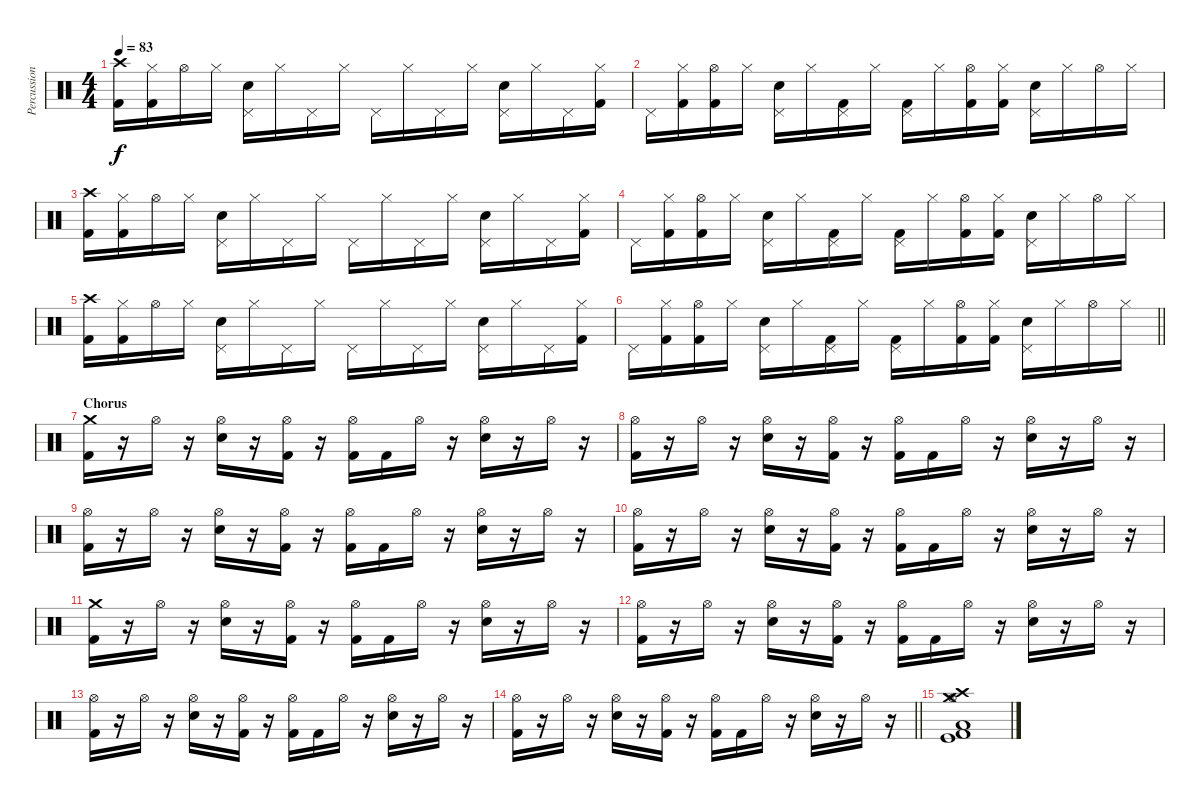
\track ("Percussion" "Percussion") {instrument percussion}
\staff {score}
\articulation defaults
\ts (4 4)
\tempo 83
\clef neutral
\ks c
("Crash high (hit)" "Kick (hit) 2").16{dy f} ("Hi-Hat (closed)" "Kick (hit) 2").16 "Hi-Hat (open)".16 "Hi-Hat (closed)".16 ("Pedal Hi-Hat (hit)" "Electric Snare (hit)").16 "Hi-Hat (closed)".16 "Pedal Hi-Hat (hit)".16 "Hi-Hat (closed)".16 "Pedal Hi-Hat (hit)".16 "Hi-Hat (closed)".16 "Pedal Hi-Hat (hit)".16 "Hi-Hat (closed)".16 ("Pedal Hi-Hat (hit)" "Electric Snare (hit)").16 "Hi-Hat (closed)".16 "Pedal Hi-Hat (hit)".16 ("Hi-Hat (closed)" "Kick (hit) 2").16 |
"Pedal Hi-Hat (hit)".16 ("Hi-Hat (closed)" "Kick (hit) 2").16 ("Hi-Hat (open)" "Kick (hit) 2").16 "Hi-Hat (closed)".16 ("Pedal Hi-Hat (hit)" "Electric Snare (hit)").16 "Hi-Hat (closed)".16 ("Pedal Hi-Hat (hit)" "Kick (hit) 2").16 "Hi-Hat (closed)".16 ("Pedal Hi-Hat (hit)" "Kick (hit) 2").16 "Hi-Hat (closed)".16 ("Hi-Hat (open)" "Kick (hit) 2").16 ("Hi-Hat (closed)" "Kick (hit) 2").16 ("Pedal Hi-Hat (hit)" "Electric Snare (hit)").16 "Hi-Hat (closed)".16 "Hi-Hat (open)".16 "Hi-Hat (closed)".16 |
("Crash high (hit)" "Kick (hit) 2").16 ("Hi-Hat (closed)" "Kick (hit) 2").16 "Hi-Hat (open)".16 "Hi-Hat (closed)".16 ("Pedal Hi-Hat (hit)" "Electric Snare (hit)").16 "Hi-Hat (closed)".16 "Pedal Hi-Hat (hit)".16 "Hi-Hat (closed)".16 "Pedal Hi-Hat (hit)".16 "Hi-Hat (closed)".16 "Pedal Hi-Hat (hit)".16 "Hi-Hat (closed)".16 ("Pedal Hi-Hat (hit)" "Electric Snare (hit)").16 "Hi-Hat (closed)".16 "Pedal Hi-Hat (hit)".16 ("Hi-Hat (closed)" "Kick (hit) 2").16 |
"Pedal Hi-Hat (hit)".16 ("Hi-Hat (closed)" "Kick (hit) 2").16 ("Hi-Hat (open)" "Kick (hit) 2").16 "Hi-Hat (closed)".16 ("Pedal Hi-Hat (hit)" "Electric Snare (hit)").16 "Hi-Hat (closed)".16 ("Pedal Hi-Hat (hit)" "Kick (hit) 2").16 "Hi-Hat (closed)".16 ("Pedal Hi-Hat (hit)" "Kick (hit) 2").16 "Hi-Hat (closed)".16 ("Hi-Hat (open)" "Kick (hit) 2").16 ("Hi-Hat (closed)" "Kick (hit) 2").16 ("Pedal Hi-Hat (hit)" "Electric Snare (hit)").16 "Hi-Hat (closed)".16 "Hi-Hat (open)".16 "Hi-Hat (closed)".16 |
("Crash high (hit)" "Kick (hit) 2").16 ("Hi-Hat (closed)" "Kick (hit) 2").16 "Hi-Hat (open)".16 "Hi-Hat (closed)".16 ("Pedal Hi-Hat (hit)" "Electric Snare (hit)").16 "Hi-Hat (closed)".16 "Pedal Hi-Hat (hit)".16 "Hi-Hat (closed)".16 "Pedal Hi-Hat (hit)".16 "Hi-Hat (closed)".16 "Pedal Hi-Hat (hit)".16 "Hi-Hat (closed)".16 ("Pedal Hi-Hat (hit)" "Electric Snare (hit)").16 "Hi-Hat (closed)".16 "Pedal Hi-Hat (hit)".16 ("Hi-Hat (closed)" "Kick (hit) 2").16 |
\barLineRight lightlight "Pedal Hi-Hat (hit)".16
("Hi-Hat (closed)" "Kick (hit) 2").16 ("Hi-Hat (open)" "Kick (hit) 2").16 "Hi-Hat (closed)".16 ("Pedal Hi-Hat (hit)" "Electric Snare (hit)").16 "Hi-Hat (closed)".16 ("Pedal Hi-Hat (hit)" "Kick (hit) 2").16 "Hi-Hat (closed)".16 ("Pedal Hi-Hat (hit)" "Kick (hit) 2").16 "Hi-Hat (closed)".16 ("Hi-Hat (open)" "Kick (hit) 2").16 ("Hi-Hat (closed)" "Kick (hit) 2").16 ("Pedal Hi-Hat (hit)" "Electric Snare (hit)").16 "Hi-Hat (closed)".16 "Hi-Hat (open)".16 "Hi-Hat (closed)".16 |
\section ("" "Chorus")
("Crash medium (hit)" "Kick (hit) 2").16 r.16 "Hi-Hat (open)".16 r.16 ("Hi-Hat (open)" "Electric Snare (hit)").16 r.16 ("Hi-Hat (open)" "Kick (hit) 2").16 r.16 ("Hi-Hat (open)" "Kick (hit) 2").16 "Kick (hit) 2".16 "Hi-Hat (open)".16 r.16 ("Hi-Hat (open)" "Electric Snare (hit)").16 r.16 "Hi-Hat (open)".16 r.16 |
("Hi-Hat (open)" "Kick (hit) 2").16 r.16 "Hi-Hat (open)".16 r.16 ("Hi-Hat (open)" "Electric Snare (hit)").16 r.16 ("Hi-Hat (open)" "Kick (hit) 2").16 r.16 ("Hi-Hat (open)" "Kick (hit) 2").16 "Kick (hit) 2".16 "Hi-Hat (open)".16 r.16 ("Hi-Hat (open)" "Electric Snare (hit)").16 r.16 "Hi-Hat (open)".16 r.16 |
("Hi-Hat (open)" "Kick (hit) 2").16 r.16 "Hi-Hat (open)".16 r.16 ("Hi-Hat (open)" "Electric Snare (hit)").16 r.16 ("Hi-Hat (open)" "Kick (hit) 2").16 r.16 ("Hi-Hat (open)" "Kick (hit) 2").16 "Kick (hit) 2".16 "Hi-Hat (open)".16 r.16 ("Hi-Hat (open)" "Electric Snare (hit)").16 r.16 "Hi-Hat (open)".16 r.16 |
("Hi-Hat (open)" "Kick (hit) 2").16 r.16 "Hi-Hat (open)".16 r.16 ("Hi-Hat (open)" "Electric Snare (hit)").16 r.16 ("Hi-Hat (open)" "Kick (hit) 2").16 r.16 ("Hi-Hat (open)" "Kick (hit) 2").16 "Kick (hit) 2".16 "Hi-Hat (open)".16 r.16 ("Hi-Hat (open)" "Electric Snare (hit)").16 r.16 "Hi-Hat (open)".16 r.16 |
("Crash medium (hit)" "Kick (hit) 2").16 r.16 "Hi-Hat (open)".16 r.16 ("Hi-Hat (open)" "Electric Snare (hit)").16 r.16 ("Hi-Hat (open)" "Kick (hit) 2").16 r.16 ("Hi-Hat (open)" "Kick (hit) 2").16 "Kick (hit) 2".16 "Hi-Hat (open)".16 r.16 ("Hi-Hat (open)" "Electric Snare (hit)").16 r.16 "Hi-Hat (open)".16 r.16 |
("Hi-Hat (open)" "Kick (hit) 2").16 r.16 "Hi-Hat (open)".16 r.16 ("Hi-Hat (open)" "Electric Snare (hit)").16 r.16 ("Hi-Hat (open)" "Kick (hit) 2").16 r.16 ("Hi-Hat (open)" "Kick (hit) 2").16 "Kick (hit) 2".16 "Hi-Hat (open)".16 r.16 ("Hi-Hat (open)" "Electric Snare (hit)").16 r.16 "Hi-Hat (open)".16 r.16 |
("Hi-Hat (open)" "Kick (hit) 2").16 r.16 "Hi-Hat (open)".16 r.16 ("Hi-Hat (open)" "Electric Snare (hit)").16 r.16 ("Hi-Hat (open)" "Kick (hit) 2").16 r.16 ("Hi-Hat (open)" "Kick (hit) 2").16 "Kick (hit) 2".16 "Hi-Hat (open)".16 r.16 ("Hi-Hat (open)" "Electric Snare (hit)").16 r.16 "Hi-Hat (open)".16 r.16 |
\barLineRight lightlight
("Hi-Hat (open)" "Kick (hit) 2").16 r.16 "Hi-Hat (open)".16 r.16 ("Hi-Hat (open)" "Electric Snare (hit)").16 r.16 ("Hi-Hat (open)" "Kick (hit) 2").16 r.16 ("Hi-Hat (open)" "Kick (hit) 2").16 "Kick (hit) 2".16 "Hi-Hat (open)".16 r.16 ("Hi-Hat (open)" "Electric Snare (hit)").16 r.16 "Hi-Hat (open)".16 r.16 |
("Crash high (hit)" "Crash medium (hit)" "Kick (hit) 2" "Kick (hit)" "Low Floor Tom (hit)" "Hi-Hat (open)").1
